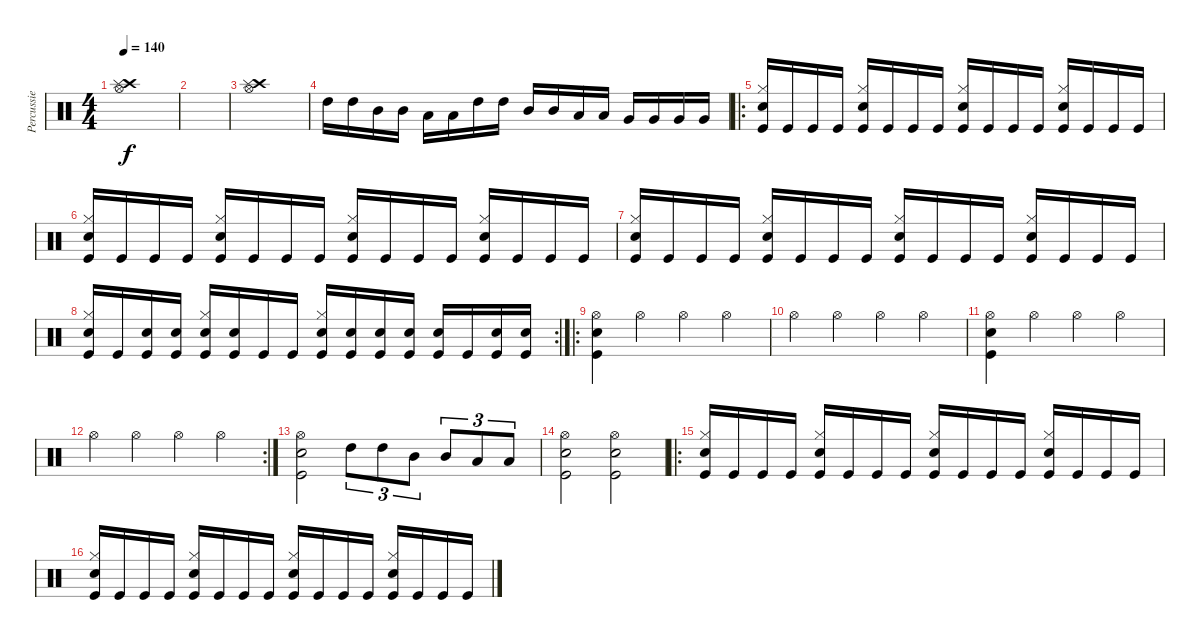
\track ("Percussie" "Percussie") {instrument percussion}
\staff {score}
\articulation defaults
\ts (4 4)
\tempo 140
\clef neutral
\ks c
("Crash high (hit)" "Splash (hit)" "Hi-Hat (open)").1{dy f} |
|
("Crash high (hit)" "Splash (hit)" "Hi-Hat (open)").1 |
"High Tom (hit)".16 "High Tom (hit)".16 "Mid Tom (hit)".16 "Mid Tom (hit)".16 "Low Tom (hit)".16 "Low Tom (hit)".16 "High Tom (hit)".16 "High Tom (hit)".16 "Mid Tom (hit)".16 "Mid Tom (hit)".16 "Low Tom (hit)".16 "Low Tom (hit)".16 "Very Low Tom (hit)".16 "Very Low Tom (hit)".16 "Very Low Tom (hit)".16 "Very Low Tom (hit)".16 |
\ro
("Snare (hit) 2" "Hi-Hat (closed)" "Kick (hit)").16 "Kick (hit)".16 "Kick (hit)".16 "Kick (hit)".16 ("Snare (hit) 2" "Hi-Hat (closed)" "Kick (hit)").16 "Kick (hit)".16 "Kick (hit)".16 "Kick (hit)".16 ("Snare (hit) 2" "Hi-Hat (closed)" "Kick (hit)").16 "Kick (hit)".16 "Kick (hit)".16 "Kick (hit)".16 ("Snare (hit) 2" "Hi-Hat (closed)" "Kick (hit)").16 "Kick (hit)".16 "Kick (hit)".16 "Kick (hit)".16 |
("Snare (hit) 2" "Hi-Hat (closed)" "Kick (hit)").16 "Kick (hit)".16 "Kick (hit)".16 "Kick (hit)".16 ("Snare (hit) 2" "Hi-Hat (closed)" "Kick (hit)").16 "Kick (hit)".16 "Kick (hit)".16 "Kick (hit)".16 ("Snare (hit) 2" "Hi-Hat (closed)" "Kick (hit)").16 "Kick (hit)".16 "Kick (hit)".16 "Kick (hit)".16 ("Snare (hit) 2" "Hi-Hat (closed)" "Kick (hit)").16 "Kick (hit)".16 "Kick (hit)".16 "Kick (hit)".16 |
("Snare (hit) 2" "Hi-Hat (closed)" "Kick (hit)").16 "Kick (hit)".16 "Kick (hit)".16 "Kick (hit)".16 ("Snare (hit) 2" "Hi-Hat (closed)" "Kick (hit)").16 "Kick (hit)".16 "Kick (hit)".16 "Kick (hit)".16 ("Snare (hit) 2" "Hi-Hat (closed)" "Kick (hit)").16 "Kick (hit)".16 "Kick (hit)".16 "Kick (hit)".16 ("Snare (hit) 2" "Hi-Hat (closed)" "Kick (hit)").16 "Kick (hit)".16 "Kick (hit)".16 "Kick (hit)".16 |
\rc 2
("Snare (hit) 2" "Hi-Hat (closed)" "Kick (hit)").16 "Kick (hit)".16 ("Snare (hit) 2" "Kick (hit)").16 ("Snare (hit) 2" "Kick (hit)").16 ("Snare (hit) 2" "Hi-Hat (closed)" "Kick (hit)").16 ("Snare (hit) 2" "Kick (hit)").16 "Kick (hit)".16 "Kick (hit)".16 ("Snare (hit) 2" "Hi-Hat (closed)" "Kick (hit)").16 ("Snare (hit) 2" "Kick (hit)").16 ("Snare (hit) 2" "Kick (hit)").16 ("Snare (hit) 2" "Kick (hit)").16 ("Snare (hit) 2" "Kick (hit)").16 "Kick (hit)".16 ("Snare (hit) 2" "Kick (hit)").16 ("Snare (hit) 2" "Kick (hit)").16 |
\ro
("Hi-Hat (open)" "Snare (hit) 2" "Kick (hit)").4 "Hi-Hat (open)".4 "Hi-Hat (open)".4 "Hi-Hat (open)".4 |
"Hi-Hat (open)".4 "Hi-Hat (open)".4 "Hi-Hat (open)".4 "Hi-Hat (open)".4 |
("Hi-Hat (open)" "Snare (hit) 2" "Kick (hit)").4 "Hi-Hat (open)".4 "Hi-Hat (open)".4 "Hi-Hat (open)".4 |
\rc 2 "Hi-Hat (open)".4 "Hi-Hat (open)".4 "Hi-Hat (open)".4 "Hi-Hat (open)".4
|
("Hi-Hat (open)" "Snare (hit) 2" "Kick (hit)").2 "High Tom (hit)".8{tu (3 2)} "High Tom (hit)".8{tu (3 2)} "Mid Tom (hit)".8{tu (3 2)} "Mid Tom (hit)".8{tu (3 2)} "Low Tom (hit)".8{tu (3 2)} "Low Tom (hit)".8{tu (3 2)} |
("Hi-Hat (open)" "Snare (hit) 2" "Kick (hit)").2 ("Hi-Hat (open)" "Snare (hit) 2" "Kick (hit)").2 |
\ro
("Snare (hit) 2" "Hi-Hat (closed)" "Kick (hit)").16 "Kick (hit)".16 "Kick (hit)".16 "Kick (hit)".16 ("Snare (hit) 2" "Hi-Hat (closed)" "Kick (hit)").16 "Kick (hit)".16 "Kick (hit)".16 "Kick (hit)".16 ("Snare (hit) 2" "Hi-Hat (closed)" "Kick (hit)").16 "Kick (hit)".16 "Kick (hit)".16 "Kick (hit)".16 ("Snare (hit) 2" "Hi-Hat (closed)" "Kick (hit)").16 "Kick (hit)".16 "Kick (hit)".16 "Kick (hit)".16 |
("Snare (hit) 2" "Hi-Hat (closed)" "Kick (hit)").16 "Kick (hit)".16 "Kick (hit)".16 "Kick (hit)".16 ("Snare (hit) 2" "Hi-Hat (closed)" "Kick (hit)").16 "Kick (hit)".16 "Kick (hit)".16 "Kick (hit)".16 ("Snare (hit) 2" "Hi-Hat (closed)" "Kick (hit)").16 "Kick (hit)".16 "Kick (hit)".16 "Kick (hit)".16 ("Snare (hit) 2" "Hi-Hat (closed)" "Kick (hit)").16 "Kick (hit)".16 "Kick (hit)".16 "Kick (hit)".16
